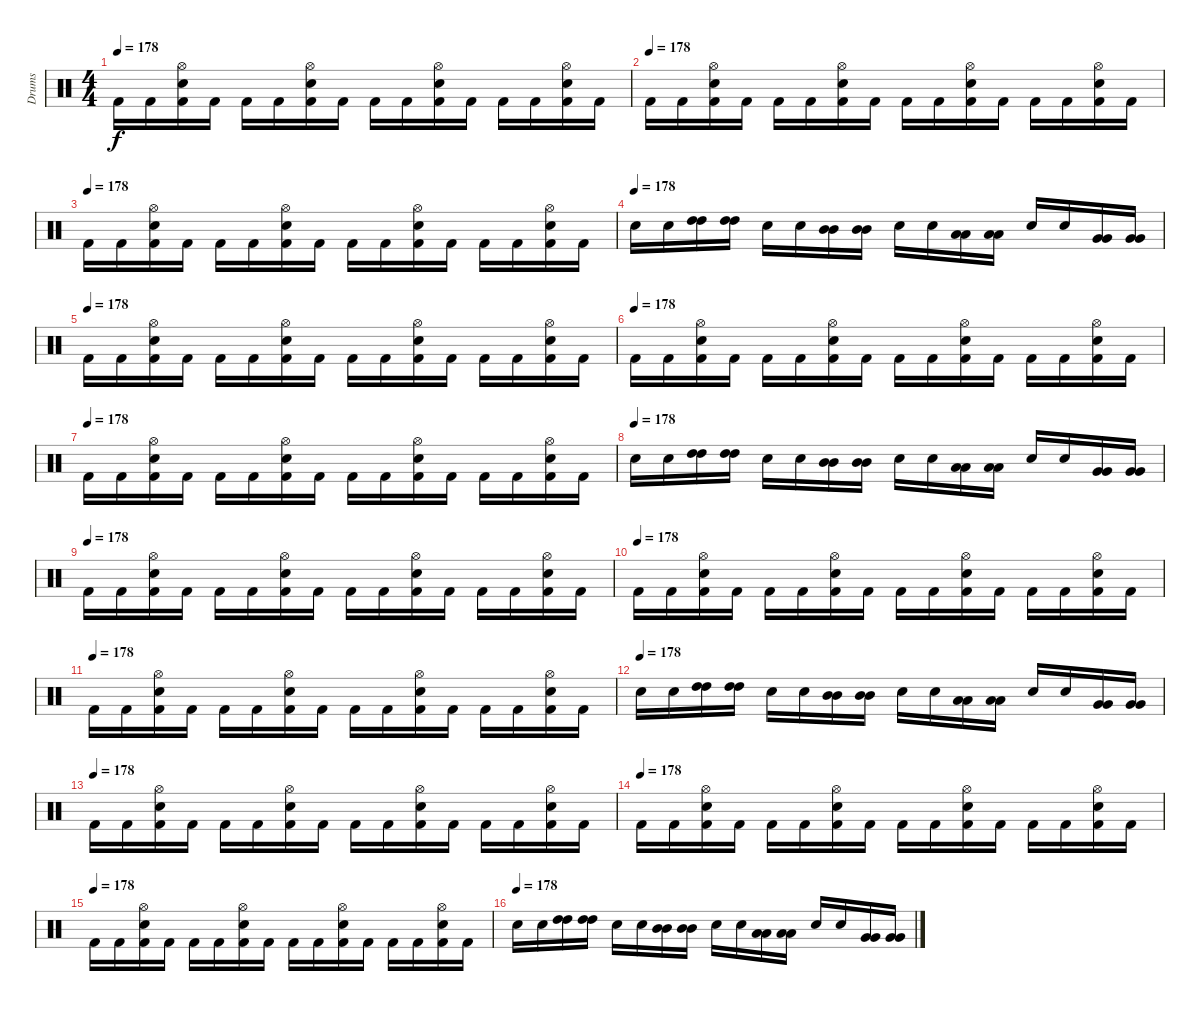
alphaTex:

\track ("Drums" "Drums") {instrument percussion}
\staff {score}
\articulation defaults
\ts (4 4)
\tempo 178
\clef neutral
\ks c "Kick (hit) 2".16{dy f} "Kick (hit) 2".16
("Snare (hit) 2" "Hi-Hat (open)" "Kick (hit) 2").16 "Kick (hit) 2".16 "Kick (hit) 2".16 "Kick (hit) 2".16 ("Snare (hit) 2" "Hi-Hat (open)" "Kick (hit) 2").16 "Kick (hit) 2".16 "Kick (hit) 2".16 "Kick (hit) 2".16 ("Snare (hit) 2" "Hi-Hat (open)" "Kick (hit) 2").16 "Kick (hit) 2".16 "Kick (hit) 2".16 "Kick (hit) 2".16 ("Snare (hit) 2" "Hi-Hat (open)" "Kick (hit) 2").16 "Kick (hit) 2".16 |
\tempo (178)
"Kick (hit) 2".16 "Kick (hit) 2".16 ("Snare (hit) 2" "Hi-Hat (open)" "Kick (hit) 2").16 "Kick (hit) 2".16 "Kick (hit) 2".16 "Kick (hit) 2".16 ("Snare (hit) 2" "Hi-Hat (open)" "Kick (hit) 2").16 "Kick (hit) 2".16 "Kick (hit) 2".16 "Kick (hit) 2".16 ("Snare (hit) 2" "Hi-Hat (open)" "Kick (hit) 2").16 "Kick (hit) 2".16 "Kick (hit) 2".16 "Kick (hit) 2".16 ("Snare (hit) 2" "Hi-Hat (open)" "Kick (hit) 2").16 "Kick (hit) 2".16 |
\tempo (178)
"Kick (hit) 2".16 "Kick (hit) 2".16 ("Snare (hit) 2" "Hi-Hat (open)" "Kick (hit) 2").16 "Kick (hit) 2".16 "Kick (hit) 2".16 "Kick (hit) 2".16 ("Snare (hit) 2" "Hi-Hat (open)" "Kick (hit) 2").16 "Kick (hit) 2".16 "Kick (hit) 2".16 "Kick (hit) 2".16 ("Snare (hit) 2" "Hi-Hat (open)" "Kick (hit) 2").16 "Kick (hit) 2".16 "Kick (hit) 2".16 "Kick (hit) 2".16 ("Snare (hit) 2" "Hi-Hat (open)" "Kick (hit) 2").16 "Kick (hit) 2".16 |
\tempo (178)
"Snare (hit) 2".16 "Electric Snare (hit)".16 ("High Tom (hit)" "High Tom (hit)").16 ("High Tom (hit)" "High Tom (hit)").16 "Snare (hit) 2".16 "Electric Snare (hit)".16 ("Mid Tom (hit)" "Mid Tom (hit)").16 ("Mid Tom (hit)" "Mid Tom (hit)").16 "Snare (hit) 2".16 "Electric Snare (hit)".16 ("Low Tom (hit)" "Low Tom (hit)").16 ("Low Tom (hit)" "Low Tom (hit)").16 "Snare (hit) 2".16 "Electric Snare (hit)".16 ("Very Low Tom (hit)" "Very Low Tom (hit)").16 ("Very Low Tom (hit)" "Very Low Tom (hit)").16 |
\tempo (178)
"Kick (hit) 2".16 "Kick (hit) 2".16 ("Snare (hit) 2" "Hi-Hat (open)" "Kick (hit) 2").16 "Kick (hit) 2".16 "Kick (hit) 2".16 "Kick (hit) 2".16 ("Snare (hit) 2" "Hi-Hat (open)" "Kick (hit) 2").16 "Kick (hit) 2".16 "Kick (hit) 2".16 "Kick (hit) 2".16 ("Snare (hit) 2" "Hi-Hat (open)" "Kick (hit) 2").16 "Kick (hit) 2".16 "Kick (hit) 2".16 "Kick (hit) 2".16 ("Snare (hit) 2" "Hi-Hat (open)" "Kick (hit) 2").16 "Kick (hit) 2".16 |
\tempo (178)
"Kick (hit) 2".16 "Kick (hit) 2".16 ("Snare (hit) 2" "Hi-Hat (open)" "Kick (hit) 2").16 "Kick (hit) 2".16 "Kick (hit) 2".16 "Kick (hit) 2".16 ("Snare (hit) 2" "Hi-Hat (open)" "Kick (hit) 2").16 "Kick (hit) 2".16 "Kick (hit) 2".16 "Kick (hit) 2".16 ("Snare (hit) 2" "Hi-Hat (open)" "Kick (hit) 2").16 "Kick (hit) 2".16 "Kick (hit) 2".16 "Kick (hit) 2".16 ("Snare (hit) 2" "Hi-Hat (open)" "Kick (hit) 2").16 "Kick (hit) 2".16 |
\tempo (178)
"Kick (hit) 2".16 "Kick (hit) 2".16 ("Snare (hit) 2" "Hi-Hat (open)" "Kick (hit) 2").16 "Kick (hit) 2".16 "Kick (hit) 2".16 "Kick (hit) 2".16 ("Snare (hit) 2" "Hi-Hat (open)" "Kick (hit) 2").16 "Kick (hit) 2".16 "Kick (hit) 2".16 "Kick (hit) 2".16 ("Snare (hit) 2" "Hi-Hat (open)" "Kick (hit) 2").16 "Kick (hit) 2".16 "Kick (hit) 2".16 "Kick (hit) 2".16 ("Snare (hit) 2" "Hi-Hat (open)" "Kick (hit) 2").16 "Kick (hit) 2".16 |
\tempo (178)
"Snare (hit) 2".16 "Electric Snare (hit)".16 ("High Tom (hit)" "High Tom (hit)").16 ("High Tom (hit)" "High Tom (hit)").16 "Snare (hit) 2".16 "Electric Snare (hit)".16 ("Mid Tom (hit)" "Mid Tom (hit)").16 ("Mid Tom (hit)" "Mid Tom (hit)").16 "Snare (hit) 2".16 "Electric Snare (hit)".16 ("Low Tom (hit)" "Low Tom (hit)").16 ("Low Tom (hit)" "Low Tom (hit)").16 "Snare (hit) 2".16 "Electric Snare (hit)".16 ("Very Low Tom (hit)" "Very Low Tom (hit)").16 ("Very Low Tom (hit)" "Very Low Tom (hit)").16 |
\tempo (178)
"Kick (hit) 2".16 "Kick (hit) 2".16 ("Snare (hit) 2" "Hi-Hat (open)" "Kick (hit) 2").16 "Kick (hit) 2".16 "Kick (hit) 2".16 "Kick (hit) 2".16 ("Snare (hit) 2" "Hi-Hat (open)" "Kick (hit) 2").16 "Kick (hit) 2".16 "Kick (hit) 2".16 "Kick (hit) 2".16 ("Snare (hit) 2" "Hi-Hat (open)" "Kick (hit) 2").16 "Kick (hit) 2".16 "Kick (hit) 2".16 "Kick (hit) 2".16 ("Snare (hit) 2" "Hi-Hat (open)" "Kick (hit) 2").16 "Kick (hit) 2".16 |
\tempo (178)
"Kick (hit) 2".16 "Kick (hit) 2".16 ("Snare (hit) 2" "Hi-Hat (open)" "Kick (hit) 2").16 "Kick (hit) 2".16 "Kick (hit) 2".16 "Kick (hit) 2".16 ("Snare (hit) 2" "Hi-Hat (open)" "Kick (hit) 2").16 "Kick (hit) 2".16 "Kick (hit) 2".16 "Kick (hit) 2".16 ("Snare (hit) 2" "Hi-Hat (open)" "Kick (hit) 2").16 "Kick (hit) 2".16 "Kick (hit) 2".16 "Kick (hit) 2".16 ("Snare (hit) 2" "Hi-Hat (open)" "Kick (hit) 2").16 "Kick (hit) 2".16 |
\tempo (178)
"Kick (hit) 2".16 "Kick (hit) 2".16 ("Snare (hit) 2" "Hi-Hat (open)" "Kick (hit) 2").16 "Kick (hit) 2".16 "Kick (hit) 2".16 "Kick (hit) 2".16 ("Snare (hit) 2" "Hi-Hat (open)" "Kick (hit) 2").16 "Kick (hit) 2".16 "Kick (hit) 2".16 "Kick (hit) 2".16 ("Snare (hit) 2" "Hi-Hat (open)" "Kick (hit) 2").16 "Kick (hit) 2".16 "Kick (hit) 2".16 "Kick (hit) 2".16 ("Snare (hit) 2" "Hi-Hat (open)" "Kick (hit) 2").16 "Kick (hit) 2".16 |
\tempo (178)
"Snare (hit) 2".16 "Electric Snare (hit)".16 ("High Tom (hit)" "High Tom (hit)").16 ("High Tom (hit)" "High Tom (hit)").16 "Snare (hit) 2".16 "Electric Snare (hit)".16 ("Mid Tom (hit)" "Mid Tom (hit)").16 ("Mid Tom (hit)" "Mid Tom (hit)").16 "Snare (hit) 2".16 "Electric Snare (hit)".16 ("Low Tom (hit)" "Low Tom (hit)").16 ("Low Tom (hit)" "Low Tom (hit)").16 "Snare (hit) 2".16 "Electric Snare (hit)".16 ("Very Low Tom (hit)" "Very Low Tom (hit)").16 ("Very Low Tom (hit)" "Very Low Tom (hit)").16 |
\tempo (178)
"Kick (hit) 2".16 "Kick (hit) 2".16 ("Snare (hit) 2" "Hi-Hat (open)" "Kick (hit) 2").16 "Kick (hit) 2".16 "Kick (hit) 2".16 "Kick (hit) 2".16 ("Snare (hit) 2" "Hi-Hat (open)" "Kick (hit) 2").16 "Kick (hit) 2".16 "Kick (hit) 2".16 "Kick (hit) 2".16 ("Snare (hit) 2" "Hi-Hat (open)" "Kick (hit) 2").16 "Kick (hit) 2".16 "Kick (hit) 2".16 "Kick (hit) 2".16 ("Snare (hit) 2" "Hi-Hat (open)" "Kick (hit) 2").16 "Kick (hit) 2".16 |
\tempo (178)
"Kick (hit) 2".16 "Kick (hit) 2".16 ("Snare (hit) 2" "Hi-Hat (open)" "Kick (hit) 2").16 "Kick (hit) 2".16 "Kick (hit) 2".16 "Kick (hit) 2".16 ("Snare (hit) 2" "Hi-Hat (open)" "Kick (hit) 2").16 "Kick (hit) 2".16 "Kick (hit) 2".16 "Kick (hit) 2".16 ("Snare (hit) 2" "Hi-Hat (open)" "Kick (hit) 2").16 "Kick (hit) 2".16 "Kick (hit) 2".16 "Kick (hit) 2".16 ("Snare (hit) 2" "Hi-Hat (open)" "Kick (hit) 2").16 "Kick (hit) 2".16 |
\tempo (178)
"Kick (hit) 2".16 "Kick (hit) 2".16 ("Snare (hit) 2" "Hi-Hat (open)" "Kick (hit) 2").16 "Kick (hit) 2".16 "Kick (hit) 2".16 "Kick (hit) 2".16 ("Snare (hit) 2" "Hi-Hat (open)" "Kick (hit) 2").16 "Kick (hit) 2".16 "Kick (hit) 2".16 "Kick (hit) 2".16 ("Snare (hit) 2" "Hi-Hat (open)" "Kick (hit) 2").16 "Kick (hit) 2".16 "Kick (hit) 2".16 "Kick (hit) 2".16 ("Snare (hit) 2" "Hi-Hat (open)" "Kick (hit) 2").16 "Kick (hit) 2".16 |
\tempo (178)
"Snare (hit) 2".16 "Electric Snare (hit)".16 ("High Tom (hit)" "High Tom (hit)").16 ("High Tom (hit)" "High Tom (hit)").16 "Snare (hit) 2".16 "Electric Snare (hit)".16 ("Mid Tom (hit)" "Mid Tom (hit)").16 ("Mid Tom (hit)" "Mid Tom (hit)").16 "Snare (hit) 2".16 "Electric Snare (hit)".16 ("Low Tom (hit)" "Low Tom (hit)").16 ("Low Tom (hit)" "Low Tom (hit)").16 "Snare (hit) 2".16 "Electric Snare (hit)".16 ("Very Low Tom (hit)" "Very Low Tom (hit)").16 ("Very Low Tom (hit)" "Very Low Tom (hit)").16
